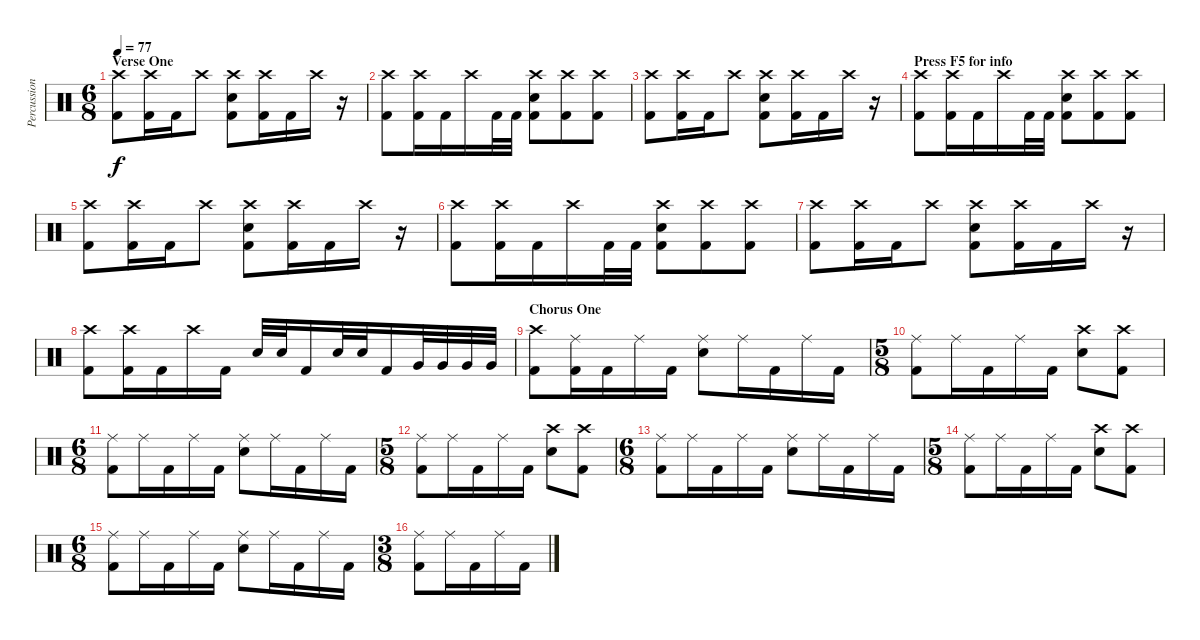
\track ("Percussion" "Percussion") {instrument percussion}
\staff {score}
\articulation defaults
\ts (6 8)
\section ("" "Verse One")
\tempo 77
\clef neutral
\ks c
("Crash high (hit)" "Kick (hit) 2").8{dy f} ("Crash high (hit)" "Kick (hit) 2").16 "Kick (hit) 2".16 "Crash high (hit)".8 ("Crash high (hit)" "Electric Snare (hit)" "Kick (hit) 2").8 ("Crash high (hit)" "Kick (hit) 2").16 "Kick (hit) 2".16 "Crash high (hit)".16 r.16 |
("Crash high (hit)" "Kick (hit) 2").8 ("Crash high (hit)" "Kick (hit) 2").16 "Kick (hit) 2".16 "Crash high (hit)".16 "Kick (hit) 2".32 "Kick (hit) 2".32 ("Crash high (hit)" "Electric Snare (hit)" "Kick (hit) 2").8 ("Crash high (hit)" "Kick (hit) 2").8 ("Crash high (hit)" "Kick (hit) 2").8 |
("Crash high (hit)" "Kick (hit) 2").8 ("Crash high (hit)" "Kick (hit) 2").16 "Kick (hit) 2".16 "Crash high (hit)".8 ("Crash high (hit)" "Electric Snare (hit)" "Kick (hit) 2").8 ("Crash high (hit)" "Kick (hit) 2").16 "Kick (hit) 2".16 "Crash high (hit)".16 r.16 |
\section ("" "Press F5 for info")
("Crash high (hit)" "Kick (hit) 2").8 ("Crash high (hit)" "Kick (hit) 2").16 "Kick (hit) 2".16 "Crash high (hit)".16 "Kick (hit) 2".32 "Kick (hit) 2".32 ("Crash high (hit)" "Electric Snare (hit)" "Kick (hit) 2").8 ("Crash high (hit)" "Kick (hit) 2").8 ("Crash high (hit)" "Kick (hit) 2").8 |
("Crash high (hit)" "Kick (hit) 2").8 ("Crash high (hit)" "Kick (hit) 2").16 "Kick (hit) 2".16 "Crash high (hit)".8 ("Crash high (hit)" "Electric Snare (hit)" "Kick (hit) 2").8 ("Crash high (hit)" "Kick (hit) 2").16 "Kick (hit) 2".16 "Crash high (hit)".16 r.16 |
("Crash high (hit)" "Kick (hit) 2").8 ("Crash high (hit)" "Kick (hit) 2").16 "Kick (hit) 2".16 "Crash high (hit)".16 "Kick (hit) 2".32 "Kick (hit) 2".32 ("Crash high (hit)" "Electric Snare (hit)" "Kick (hit) 2").8 ("Crash high (hit)" "Kick (hit) 2").8 ("Crash high (hit)" "Kick (hit) 2").8 |
("Crash high (hit)" "Kick (hit) 2").8 ("Crash high (hit)" "Kick (hit) 2").16 "Kick (hit) 2".16 "Crash high (hit)".8 ("Crash high (hit)" "Electric Snare (hit)" "Kick (hit) 2").8 ("Crash high (hit)" "Kick (hit) 2").16 "Kick (hit) 2".16 "Crash high (hit)".16 r.16 |
("Crash high (hit)" "Kick (hit) 2").8 ("Crash high (hit)" "Kick (hit) 2").16 "Kick (hit) 2".16 "Crash high (hit)".16 "Kick (hit) 2".16 "Electric Snare (hit)".32 "Electric Snare (hit)".32 "Kick (hit) 2".16 "Electric Snare (hit)".32 "Electric Snare (hit)".32 "Kick (hit) 2".16 "Very Low Tom (hit)".32 "Very Low Tom (hit)".32 "Very Low Tom (hit)".32 "Very Low Tom (hit)".32 |
\section ("" "Chorus One")
("Crash high (hit)" "Kick (hit) 2").8 ("Ride (middle)" "Kick (hit) 2").16 "Kick (hit) 2".16 "Ride (middle)".16 "Kick (hit) 2".16 ("Ride (middle)" "Electric Snare (hit)").8 "Ride (middle)".16 "Kick (hit) 2".16 "Ride (middle)".16 "Kick (hit) 2".16 |
\ts (5 8)
("Ride (middle)" "Kick (hit) 2").8 "Ride (middle)".16 "Kick (hit) 2".16 "Ride (middle)".16 "Kick (hit) 2".16 ("Crash high (hit)" "Electric Snare (hit)").8 ("Crash high (hit)" "Kick (hit) 2").8 |
\ts (6 8)
("Ride (middle)" "Kick (hit) 2").8 "Ride (middle)".16 "Kick (hit) 2".16 "Ride (middle)".16 "Kick (hit) 2".16 ("Ride (middle)" "Electric Snare (hit)").8 "Ride (middle)".16 "Kick (hit) 2".16 "Ride (middle)".16 "Kick (hit) 2".16 |
\ts (5 8)
("Ride (middle)" "Kick (hit) 2").8 "Ride (middle)".16 "Kick (hit) 2".16 "Ride (middle)".16 "Kick (hit) 2".16 ("Crash high (hit)" "Electric Snare (hit)").8 ("Crash high (hit)" "Kick (hit) 2").8 |
\ts (6 8)
("Ride (middle)" "Kick (hit) 2").8 "Ride (middle)".16 "Kick (hit) 2".16 "Ride (middle)".16 "Kick (hit) 2".16 ("Ride (middle)" "Electric Snare (hit)").8 "Ride (middle)".16 "Kick (hit) 2".16 "Ride (middle)".16 "Kick (hit) 2".16 |
\ts (5 8)
("Ride (middle)" "Kick (hit) 2").8 "Ride (middle)".16 "Kick (hit) 2".16 "Ride (middle)".16 "Kick (hit) 2".16 ("Crash high (hit)" "Electric Snare (hit)").8 ("Crash high (hit)" "Kick (hit) 2").8 |
\ts (6 8)
("Ride (middle)" "Kick (hit) 2").8 "Ride (middle)".16 "Kick (hit) 2".16 "Ride (middle)".16 "Kick (hit) 2".16 ("Ride (middle)" "Electric Snare (hit)").8 "Ride (middle)".16 "Kick (hit) 2".16 "Ride (middle)".16 "Kick (hit) 2".16 |
\ts (3 8)
("Ride (middle)" "Kick (hit) 2").8 "Ride (middle)".16 "Kick (hit) 2".16 "Ride (middle)".16 "Kick (hit) 2".16
